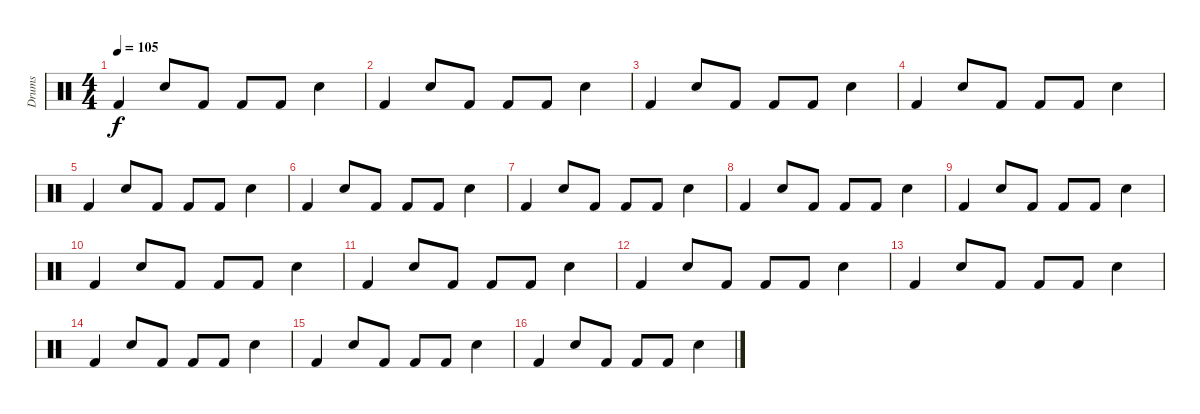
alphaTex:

\track ("Drums" "Drums") {instrument percussion}
\staff {score}
\articulation defaults
\ts (4 4)
\tempo 105
\clef neutral
\ks c "Kick (hit) 2".4{dy f} "Snare (hit) 2".8 "Kick (hit) 2".8 "Kick (hit) 2".8 "Kick (hit) 2".8 "Snare (hit) 2".4
|
"Kick (hit) 2".4 "Snare (hit) 2".8 "Kick (hit) 2".8 "Kick (hit) 2".8 "Kick (hit) 2".8 "Snare (hit) 2".4 |
"Kick (hit) 2".4 "Snare (hit) 2".8 "Kick (hit) 2".8 "Kick (hit) 2".8 "Kick (hit) 2".8 "Snare (hit) 2".4 |
"Kick (hit) 2".4 "Snare (hit) 2".8 "Kick (hit) 2".8 "Kick (hit) 2".8 "Kick (hit) 2".8 "Snare (hit) 2".4 |
"Kick (hit) 2".4 "Snare (hit) 2".8 "Kick (hit) 2".8 "Kick (hit) 2".8 "Kick (hit) 2".8 "Snare (hit) 2".4 |
"Kick (hit) 2".4 "Snare (hit) 2".8 "Kick (hit) 2".8 "Kick (hit) 2".8 "Kick (hit) 2".8 "Snare (hit) 2".4 |
"Kick (hit) 2".4 "Snare (hit) 2".8 "Kick (hit) 2".8 "Kick (hit) 2".8 "Kick (hit) 2".8 "Snare (hit) 2".4 |
"Kick (hit) 2".4 "Snare (hit) 2".8 "Kick (hit) 2".8 "Kick (hit) 2".8 "Kick (hit) 2".8 "Snare (hit) 2".4 |
"Kick (hit) 2".4 "Snare (hit) 2".8 "Kick (hit) 2".8 "Kick (hit) 2".8 "Kick (hit) 2".8 "Snare (hit) 2".4 |
"Kick (hit) 2".4 "Snare (hit) 2".8 "Kick (hit) 2".8 "Kick (hit) 2".8 "Kick (hit) 2".8 "Snare (hit) 2".4 |
"Kick (hit) 2".4 "Snare (hit) 2".8 "Kick (hit) 2".8 "Kick (hit) 2".8 "Kick (hit) 2".8 "Snare (hit) 2".4 |
"Kick (hit) 2".4 "Snare (hit) 2".8 "Kick (hit) 2".8 "Kick (hit) 2".8 "Kick (hit) 2".8 "Snare (hit) 2".4 |
"Kick (hit) 2".4 "Snare (hit) 2".8 "Kick (hit) 2".8 "Kick (hit) 2".8 "Kick (hit) 2".8 "Snare (hit) 2".4 |
"Kick (hit) 2".4 "Snare (hit) 2".8 "Kick (hit) 2".8 "Kick (hit) 2".8 "Kick (hit) 2".8 "Snare (hit) 2".4 |
"Kick (hit) 2".4 "Snare (hit) 2".8 "Kick (hit) 2".8 "Kick (hit) 2".8 "Kick (hit) 2".8 "Snare (hit) 2".4 |
"Kick (hit) 2".4 "Snare (hit) 2".8 "Kick (hit) 2".8 "Kick (hit) 2".8 "Kick (hit) 2".8 "Snare (hit) 2".4
